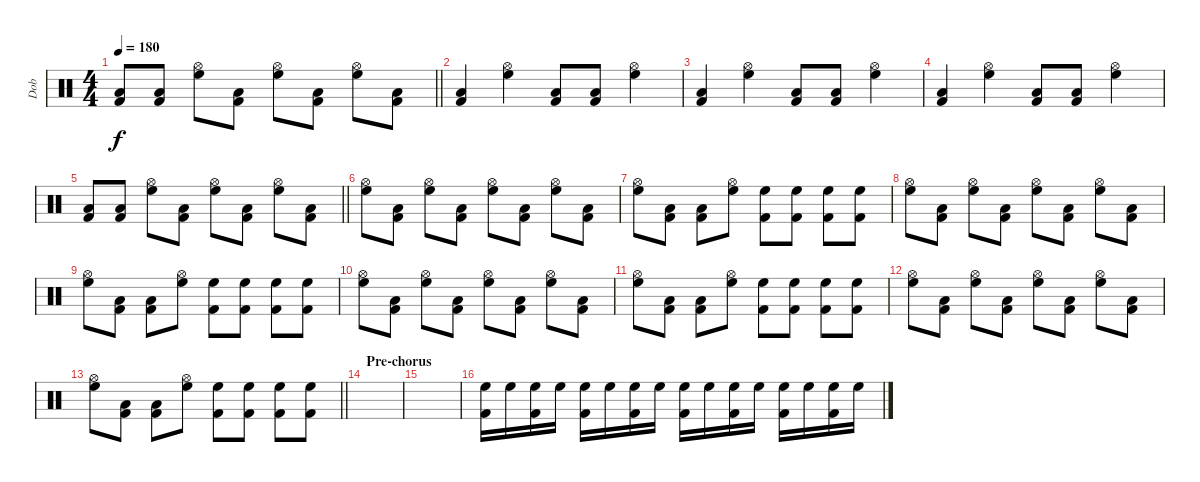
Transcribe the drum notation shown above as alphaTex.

\track ("Dob" "Dob") {instrument percussion}
\staff {score}
\articulation defaults
\ts (4 4)
\tempo 180
\clef neutral
\barLineRight lightlight
\ks c
("Low Tom (hit)" "Kick (hit) 2").8{dy f} ("Low Tom (hit)" "Kick (hit) 2").8 ("Hi-Hat (open)" "High Floor Tom (hit)").8 ("Low Tom (hit)" "Kick (hit) 2").8 ("Hi-Hat (open)" "High Floor Tom (hit)").8 ("Low Tom (hit)" "Kick (hit) 2").8 ("Hi-Hat (open)" "High Floor Tom (hit)").8 ("Low Tom (hit)" "Kick (hit) 2").8 |
("Low Tom (hit)" "Kick (hit) 2").4 ("Hi-Hat (open)" "High Floor Tom (hit)").4 ("Low Tom (hit)" "Kick (hit) 2").8 ("Low Tom (hit)" "Kick (hit) 2").8 ("Hi-Hat (open)" "High Floor Tom (hit)").4 |
("Low Tom (hit)" "Kick (hit) 2").4 ("Hi-Hat (open)" "High Floor Tom (hit)").4 ("Low Tom (hit)" "Kick (hit) 2").8 ("Low Tom (hit)" "Kick (hit) 2").8 ("Hi-Hat (open)" "High Floor Tom (hit)").4 |
("Low Tom (hit)" "Kick (hit) 2").4 ("Hi-Hat (open)" "High Floor Tom (hit)").4 ("Low Tom (hit)" "Kick (hit) 2").8 ("Low Tom (hit)" "Kick (hit) 2").8 ("Hi-Hat (open)" "High Floor Tom (hit)").4 |
\barLineRight lightlight
("Low Tom (hit)" "Kick (hit) 2").8 ("Low Tom (hit)" "Kick (hit) 2").8 ("Hi-Hat (open)" "High Floor Tom (hit)").8 ("Low Tom (hit)" "Kick (hit) 2").8 ("Hi-Hat (open)" "High Floor Tom (hit)").8 ("Low Tom (hit)" "Kick (hit) 2").8 ("Hi-Hat (open)" "High Floor Tom (hit)").8 ("Low Tom (hit)" "Kick (hit) 2").8 |
("High Floor Tom (hit)" "Hi-Hat (open)").8 ("Low Tom (hit)" "Kick (hit) 2").8 ("High Floor Tom (hit)" "Hi-Hat (open)").8 ("Low Tom (hit)" "Kick (hit) 2").8 ("High Floor Tom (hit)" "Hi-Hat (open)").8 ("Low Tom (hit)" "Kick (hit) 2").8 ("High Floor Tom (hit)" "Hi-Hat (open)").8 ("Low Tom (hit)" "Kick (hit) 2").8 |
("High Floor Tom (hit)" "Hi-Hat (open)").8 ("Low Tom (hit)" "Kick (hit) 2").8 ("Low Tom (hit)" "Kick (hit) 2").8 ("High Floor Tom (hit)" "Hi-Hat (open)").8 ("High Floor Tom (hit)" "Kick (hit) 2").8 ("High Floor Tom (hit)" "Kick (hit) 2").8 ("High Floor Tom (hit)" "Kick (hit) 2").8 ("High Floor Tom (hit)" "Kick (hit) 2").8 |
("High Floor Tom (hit)" "Hi-Hat (open)").8 ("Low Tom (hit)" "Kick (hit) 2").8 ("High Floor Tom (hit)" "Hi-Hat (open)").8 ("Low Tom (hit)" "Kick (hit) 2").8 ("High Floor Tom (hit)" "Hi-Hat (open)").8 ("Low Tom (hit)" "Kick (hit) 2").8 ("High Floor Tom (hit)" "Hi-Hat (open)").8 ("Low Tom (hit)" "Kick (hit) 2").8 |
("High Floor Tom (hit)" "Hi-Hat (open)").8 ("Low Tom (hit)" "Kick (hit) 2").8 ("Low Tom (hit)" "Kick (hit) 2").8 ("High Floor Tom (hit)" "Hi-Hat (open)").8 ("High Floor Tom (hit)" "Kick (hit) 2").8 ("High Floor Tom (hit)" "Kick (hit) 2").8 ("High Floor Tom (hit)" "Kick (hit) 2").8 ("High Floor Tom (hit)" "Kick (hit) 2").8 |
("High Floor Tom (hit)" "Hi-Hat (open)").8 ("Low Tom (hit)" "Kick (hit) 2").8 ("High Floor Tom (hit)" "Hi-Hat (open)").8 ("Low Tom (hit)" "Kick (hit) 2").8 ("High Floor Tom (hit)" "Hi-Hat (open)").8 ("Low Tom (hit)" "Kick (hit) 2").8 ("High Floor Tom (hit)" "Hi-Hat (open)").8 ("Low Tom (hit)" "Kick (hit) 2").8 |
("High Floor Tom (hit)" "Hi-Hat (open)").8 ("Low Tom (hit)" "Kick (hit) 2").8 ("Low Tom (hit)" "Kick (hit) 2").8 ("High Floor Tom (hit)" "Hi-Hat (open)").8 ("High Floor Tom (hit)" "Kick (hit) 2").8 ("High Floor Tom (hit)" "Kick (hit) 2").8 ("High Floor Tom (hit)" "Kick (hit) 2").8 ("High Floor Tom (hit)" "Kick (hit) 2").8 |
("High Floor Tom (hit)" "Hi-Hat (open)").8 ("Low Tom (hit)" "Kick (hit) 2").8 ("High Floor Tom (hit)" "Hi-Hat (open)").8 ("Low Tom (hit)" "Kick (hit) 2").8 ("High Floor Tom (hit)" "Hi-Hat (open)").8 ("Low Tom (hit)" "Kick (hit) 2").8 ("High Floor Tom (hit)" "Hi-Hat (open)").8 ("Low Tom (hit)" "Kick (hit) 2").8 |
\barLineRight lightlight
("High Floor Tom (hit)" "Hi-Hat (open)").8 ("Low Tom (hit)" "Kick (hit) 2").8 ("Low Tom (hit)" "Kick (hit) 2").8 ("High Floor Tom (hit)" "Hi-Hat (open)").8 ("High Floor Tom (hit)" "Kick (hit) 2").8 ("High Floor Tom (hit)" "Kick (hit) 2").8 ("High Floor Tom (hit)" "Kick (hit) 2").8 ("High Floor Tom (hit)" "Kick (hit) 2").8 |
\section ("" "Pre-chorus")
|
|
("Kick (hit) 2" "High Floor Tom (hit)").16 "High Floor Tom (hit)".16 ("Kick (hit) 2" "High Floor Tom (hit)").16 "High Floor Tom (hit)".16 ("Kick (hit) 2" "High Floor Tom (hit)").16 "High Floor Tom (hit)".16 ("Kick (hit) 2" "High Floor Tom (hit)").16 "High Floor Tom (hit)".16 ("Kick (hit) 2" "High Floor Tom (hit)").16 "High Floor Tom (hit)".16 ("Kick (hit) 2" "High Floor Tom (hit)").16 "High Floor Tom (hit)".16 ("Kick (hit) 2" "High Floor Tom (hit)").16 "High Floor Tom (hit)".16 ("Kick (hit) 2" "High Floor Tom (hit)").16 "High Floor Tom (hit)".16
